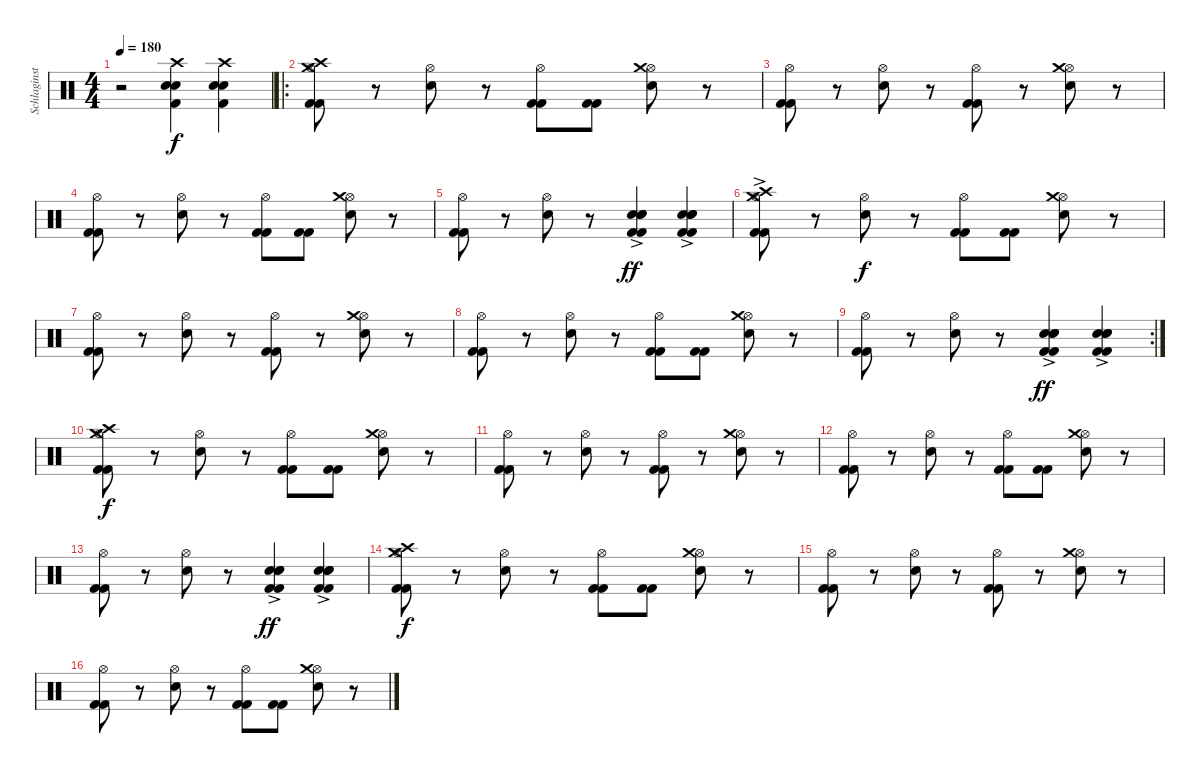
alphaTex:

\track ("Schlaginstrumente - Auswahl" "Schlaginst") {instrument percussion}
\staff {score}
\articulation defaults
\ts (4 4)
\tempo 180
\clef neutral
\ks c
r.2{dy f} ("Kick (hit) 2" "Snare (hit) 2" "Electric Snare (hit)" "Crash high (hit)").4 ("Kick (hit) 2" "Snare (hit) 2" "Electric Snare (hit)" "Crash high (hit)").4 |
\ro
("Kick (hit) 2" "Kick (hit) 2" "Hi-Hat (open)" "Crash high (hit)" "Crash medium (hit)").8 r.8 ("Hi-Hat (open)" "Snare (hit) 2").8 r.8 ("Kick (hit) 2" "Kick (hit) 2" "Hi-Hat (open)").8 ("Kick (hit) 2" "Kick (hit) 2").8 ("Hi-Hat (open)" "Snare (hit) 2" "Crash medium (hit)").8 r.8 |
("Kick (hit) 2" "Kick (hit) 2" "Hi-Hat (open)").8 r.8 ("Hi-Hat (open)" "Snare (hit) 2").8 r.8 ("Kick (hit) 2" "Kick (hit) 2" "Hi-Hat (open)").8 r.8 ("Hi-Hat (open)" "Snare (hit) 2" "Crash medium (hit)").8 r.8 |
("Kick (hit) 2" "Kick (hit) 2" "Hi-Hat (open)").8 r.8 ("Hi-Hat (open)" "Snare (hit) 2").8 r.8 ("Kick (hit) 2" "Kick (hit) 2" "Hi-Hat (open)").8 ("Kick (hit) 2" "Kick (hit) 2").8 ("Hi-Hat (open)" "Snare (hit) 2" "Crash medium (hit)").8 r.8 |
("Kick (hit) 2" "Kick (hit) 2" "Hi-Hat (open)").8 r.8 ("Hi-Hat (open)" "Snare (hit) 2").8 r.8 ("Kick (hit) 2" "Kick (hit) 2" "Snare (hit) 2" "Snare (hit) 2"{ac} "Snare (hit) 2").4{dy ff} ("Kick (hit) 2" "Kick (hit) 2" "Snare (hit) 2" "Snare (hit) 2"{ac} "Snare (hit) 2").4 |
("Kick (hit) 2" "Kick (hit) 2" "Hi-Hat (open)" "Crash high (hit)"{ac} "Crash medium (hit)").8 r.8 ("Hi-Hat (open)" "Snare (hit) 2").8{dy f} r.8 ("Kick (hit) 2" "Kick (hit) 2" "Hi-Hat (open)").8 ("Kick (hit) 2" "Kick (hit) 2").8 ("Hi-Hat (open)" "Snare (hit) 2" "Crash medium (hit)").8 r.8 |
("Kick (hit) 2" "Kick (hit) 2" "Hi-Hat (open)").8 r.8 ("Hi-Hat (open)" "Snare (hit) 2").8 r.8 ("Kick (hit) 2" "Kick (hit) 2" "Hi-Hat (open)").8 r.8 ("Hi-Hat (open)" "Snare (hit) 2" "Crash medium (hit)").8 r.8 |
("Kick (hit) 2" "Kick (hit) 2" "Hi-Hat (open)").8 r.8 ("Hi-Hat (open)" "Snare (hit) 2").8 r.8 ("Kick (hit) 2" "Kick (hit) 2" "Hi-Hat (open)").8 ("Kick (hit) 2" "Kick (hit) 2").8 ("Hi-Hat (open)" "Snare (hit) 2" "Crash medium (hit)").8 r.8 |
\rc 2
("Kick (hit) 2" "Kick (hit) 2" "Hi-Hat (open)").8 r.8 ("Hi-Hat (open)" "Snare (hit) 2").8 r.8 ("Kick (hit) 2" "Kick (hit) 2" "Snare (hit) 2" "Snare (hit) 2"{ac} "Snare (hit) 2").4{dy ff} ("Kick (hit) 2" "Kick (hit) 2" "Snare (hit) 2" "Snare (hit) 2"{ac} "Snare (hit) 2").4 |
("Kick (hit) 2" "Kick (hit) 2" "Hi-Hat (open)" "Crash high (hit)" "Crash medium (hit)").8{dy f} r.8 ("Hi-Hat (open)" "Snare (hit) 2").8 r.8 ("Kick (hit) 2" "Kick (hit) 2" "Hi-Hat (open)").8 ("Kick (hit) 2" "Kick (hit) 2").8 ("Hi-Hat (open)" "Snare (hit) 2" "Crash medium (hit)").8 r.8 |
("Kick (hit) 2" "Kick (hit) 2" "Hi-Hat (open)").8 r.8 ("Hi-Hat (open)" "Snare (hit) 2").8 r.8 ("Kick (hit) 2" "Kick (hit) 2" "Hi-Hat (open)").8 r.8 ("Hi-Hat (open)" "Snare (hit) 2" "Crash medium (hit)").8 r.8 |
("Kick (hit) 2" "Kick (hit) 2" "Hi-Hat (open)").8 r.8 ("Hi-Hat (open)" "Snare (hit) 2").8 r.8 ("Kick (hit) 2" "Kick (hit) 2" "Hi-Hat (open)").8 ("Kick (hit) 2" "Kick (hit) 2").8 ("Hi-Hat (open)" "Snare (hit) 2" "Crash medium (hit)").8 r.8 |
("Kick (hit) 2" "Kick (hit) 2" "Hi-Hat (open)").8 r.8 ("Hi-Hat (open)" "Snare (hit) 2").8 r.8 ("Kick (hit) 2" "Kick (hit) 2" "Snare (hit) 2" "Snare (hit) 2"{ac} "Snare (hit) 2").4{dy ff} ("Kick (hit) 2" "Kick (hit) 2" "Snare (hit) 2" "Snare (hit) 2"{ac} "Snare (hit) 2").4 |
("Kick (hit) 2" "Kick (hit) 2" "Hi-Hat (open)" "Crash high (hit)" "Crash medium (hit)").8{dy f} r.8 ("Hi-Hat (open)" "Snare (hit) 2").8 r.8 ("Kick (hit) 2" "Kick (hit) 2" "Hi-Hat (open)").8 ("Kick (hit) 2" "Kick (hit) 2").8 ("Hi-Hat (open)" "Snare (hit) 2" "Crash medium (hit)").8 r.8 |
("Kick (hit) 2" "Kick (hit) 2" "Hi-Hat (open)").8 r.8 ("Hi-Hat (open)" "Snare (hit) 2").8 r.8 ("Kick (hit) 2" "Kick (hit) 2" "Hi-Hat (open)").8 r.8 ("Hi-Hat (open)" "Snare (hit) 2" "Crash medium (hit)").8 r.8 |
("Kick (hit) 2" "Kick (hit) 2" "Hi-Hat (open)").8 r.8 ("Hi-Hat (open)" "Snare (hit) 2").8 r.8 ("Kick (hit) 2" "Kick (hit) 2" "Hi-Hat (open)").8 ("Kick (hit) 2" "Kick (hit) 2").8 ("Hi-Hat (open)" "Snare (hit) 2" "Crash medium (hit)").8 r.8
